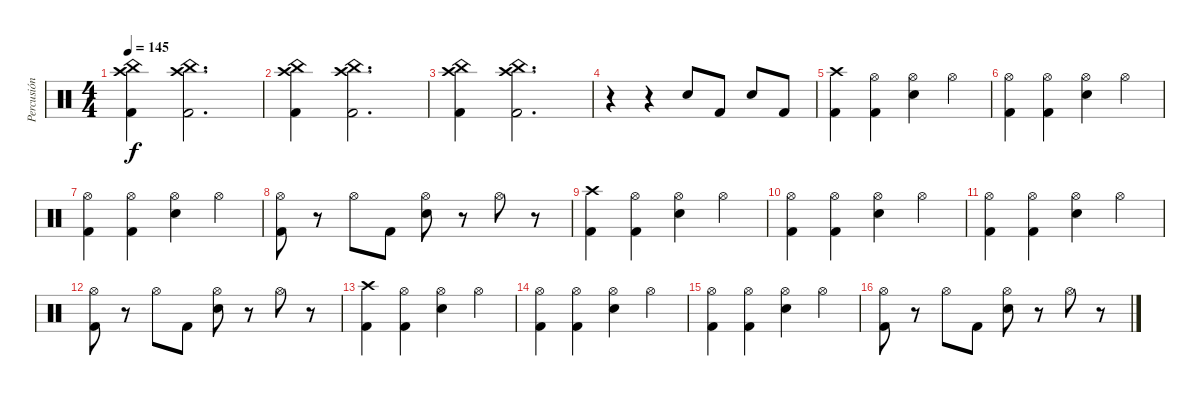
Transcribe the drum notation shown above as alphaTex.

\track ("Percusión" "Percusión") {instrument percussion}
\staff {score}
\articulation defaults
\ts (4 4)
\tempo 145
\clef neutral
\ks c
("Crash high (hit)" "China (hit)" "Kick (hit) 2").4{dy f} ("Crash high (hit)" "China (hit)" "Kick (hit) 2").2{d} |
("Crash high (hit)" "China (hit)" "Kick (hit) 2").4 ("Crash high (hit)" "China (hit)" "Kick (hit) 2").2{d} |
("Crash high (hit)" "China (hit)" "Kick (hit) 2").4 ("Crash high (hit)" "China (hit)" "Kick (hit) 2").2{d} |
r.4 r.4 "Electric Snare (hit)".8 "Kick (hit) 2".8 "Electric Snare (hit)".8 "Kick (hit) 2".8 |
("Crash high (hit)" "Kick (hit) 2").4 ("Hi-Hat (open)" "Kick (hit) 2").4 ("Hi-Hat (open)" "Electric Snare (hit)").4 "Hi-Hat (open)".4 |
("Hi-Hat (open)" "Kick (hit) 2").4 ("Hi-Hat (open)" "Kick (hit) 2").4 ("Hi-Hat (open)" "Electric Snare (hit)").4 "Hi-Hat (open)".4 |
("Hi-Hat (open)" "Kick (hit) 2").4 ("Hi-Hat (open)" "Kick (hit) 2").4 ("Hi-Hat (open)" "Electric Snare (hit)").4 "Hi-Hat (open)".4 |
("Hi-Hat (open)" "Kick (hit) 2").8 r.8 "Hi-Hat (open)".8 "Kick (hit) 2".8 ("Hi-Hat (open)" "Electric Snare (hit)").8 r.8 "Hi-Hat (open)".8 r.8 |
("Crash high (hit)" "Kick (hit) 2").4 ("Hi-Hat (open)" "Kick (hit) 2").4 ("Hi-Hat (open)" "Electric Snare (hit)").4 "Hi-Hat (open)".4 |
("Hi-Hat (open)" "Kick (hit) 2").4 ("Hi-Hat (open)" "Kick (hit) 2").4 ("Hi-Hat (open)" "Electric Snare (hit)").4 "Hi-Hat (open)".4 |
("Hi-Hat (open)" "Kick (hit) 2").4 ("Hi-Hat (open)" "Kick (hit) 2").4 ("Hi-Hat (open)" "Electric Snare (hit)").4 "Hi-Hat (open)".4 |
("Hi-Hat (open)" "Kick (hit) 2").8 r.8 "Hi-Hat (open)".8 "Kick (hit) 2".8 ("Hi-Hat (open)" "Electric Snare (hit)").8 r.8 "Hi-Hat (open)".8 r.8 |
("Crash high (hit)" "Kick (hit) 2").4 ("Hi-Hat (open)" "Kick (hit) 2").4 ("Hi-Hat (open)" "Electric Snare (hit)").4 "Hi-Hat (open)".4 |
("Hi-Hat (open)" "Kick (hit) 2").4 ("Hi-Hat (open)" "Kick (hit) 2").4 ("Hi-Hat (open)" "Electric Snare (hit)").4 "Hi-Hat (open)".4 |
("Hi-Hat (open)" "Kick (hit) 2").4 ("Hi-Hat (open)" "Kick (hit) 2").4 ("Hi-Hat (open)" "Electric Snare (hit)").4 "Hi-Hat (open)".4 |
("Hi-Hat (open)" "Kick (hit) 2").8 r.8 "Hi-Hat (open)".8 "Kick (hit) 2".8 ("Hi-Hat (open)" "Electric Snare (hit)").8 r.8 "Hi-Hat (open)".8 r.8
